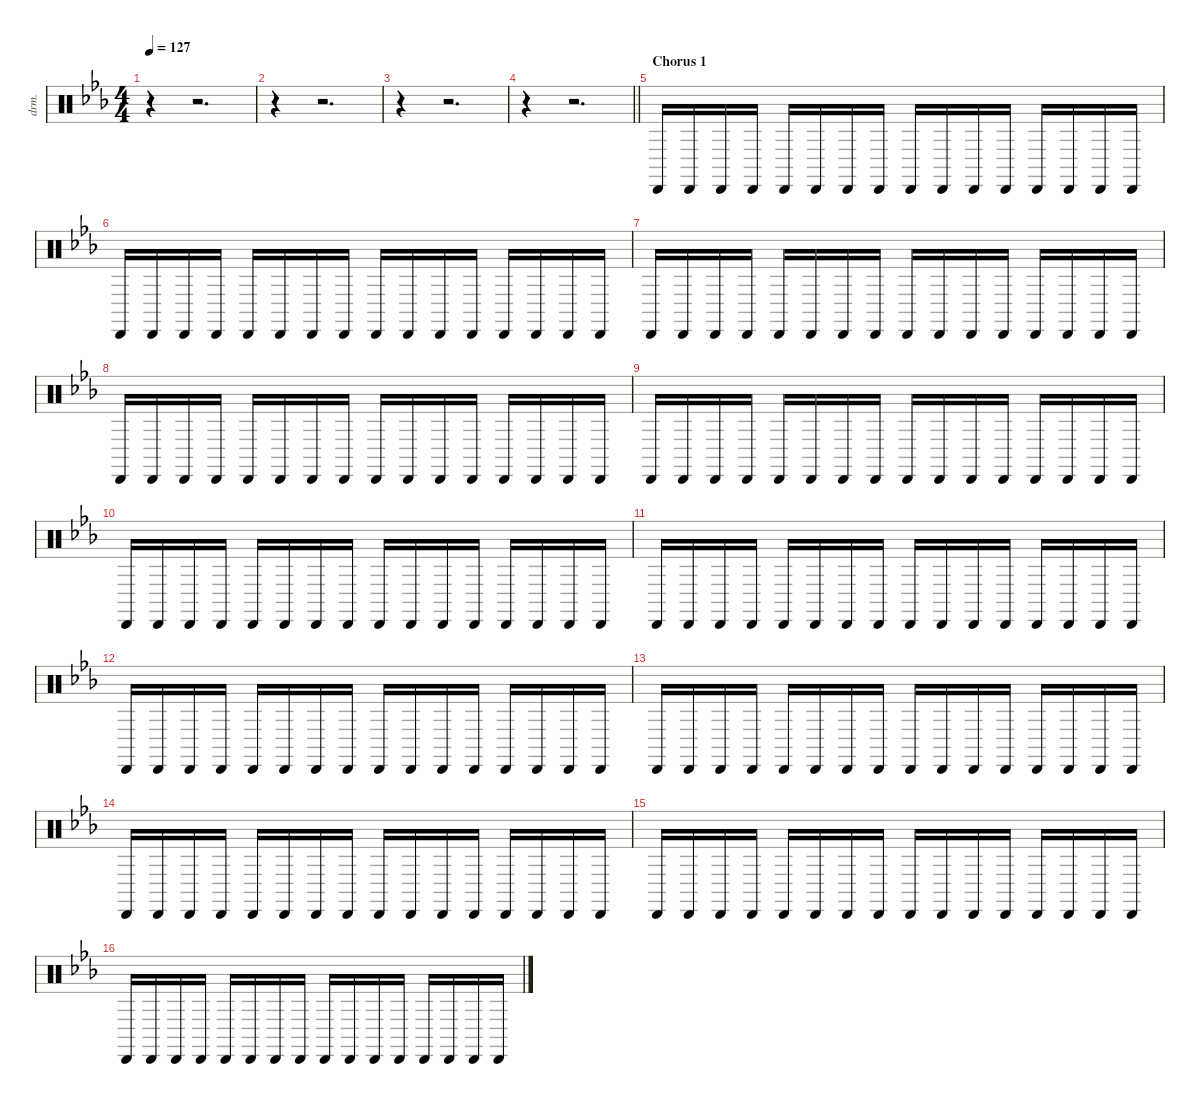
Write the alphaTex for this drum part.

\defaultSystemsLayout 4
\hideDynamics
\bracketExtendMode nobrackets
\otherSystemsTrackNameOrientation horizontal
\track ("Maracas" "drm.") {instrument percussion}
\staff {score}
\articulation defaults
\ts (4 4)
\tempo 127
\clef neutral
\ks eb
r.4{dy mf} r.2{d} |
r.4 r.2{d} |
r.4 r.2{d} |
\barLineRight lightlight
r.4 r.2{d} |
\section ("" "Chorus 1")
"Cabasa (hit)"{acc forcenatural}.16 "Cabasa (hit)"{acc forcenatural}.16{dy p} "Cabasa (hit)"{acc forcenatural}.16 "Cabasa (hit)"{acc forcenatural}.16 "Cabasa (hit)"{acc forcenatural}.16{dy mf} "Cabasa (hit)"{acc forcenatural}.16{dy p} "Cabasa (hit)"{acc forcenatural}.16 "Cabasa (hit)"{acc forcenatural}.16 "Cabasa (hit)"{acc forcenatural}.16{dy mf} "Cabasa (hit)"{acc forcenatural}.16{dy p} "Cabasa (hit)"{acc forcenatural}.16 "Cabasa (hit)"{acc forcenatural}.16 "Cabasa (hit)"{acc forcenatural}.16{dy mf} "Cabasa (hit)"{acc forcenatural}.16{dy p} "Cabasa (hit)"{acc forcenatural}.16 "Cabasa (hit)"{acc forcenatural}.16 |
"Cabasa (hit)"{acc forcenatural}.16{dy mf} "Cabasa (hit)"{acc forcenatural}.16{dy p} "Cabasa (hit)"{acc forcenatural}.16 "Cabasa (hit)"{acc forcenatural}.16 "Cabasa (hit)"{acc forcenatural}.16{dy mf} "Cabasa (hit)"{acc forcenatural}.16{dy p} "Cabasa (hit)"{acc forcenatural}.16 "Cabasa (hit)"{acc forcenatural}.16 "Cabasa (hit)"{acc forcenatural}.16{dy mf} "Cabasa (hit)"{acc forcenatural}.16{dy p} "Cabasa (hit)"{acc forcenatural}.16 "Cabasa (hit)"{acc forcenatural}.16 "Cabasa (hit)"{acc forcenatural}.16{dy mf} "Cabasa (hit)"{acc forcenatural}.16{dy p} "Cabasa (hit)"{acc forcenatural}.16 "Cabasa (hit)"{acc forcenatural}.16 |
"Cabasa (hit)"{acc forcenatural}.16{dy mf} "Cabasa (hit)"{acc forcenatural}.16{dy p} "Cabasa (hit)"{acc forcenatural}.16 "Cabasa (hit)"{acc forcenatural}.16 "Cabasa (hit)"{acc forcenatural}.16{dy mf} "Cabasa (hit)"{acc forcenatural}.16{dy p} "Cabasa (hit)"{acc forcenatural}.16 "Cabasa (hit)"{acc forcenatural}.16 "Cabasa (hit)"{acc forcenatural}.16{dy mf} "Cabasa (hit)"{acc forcenatural}.16{dy p} "Cabasa (hit)"{acc forcenatural}.16 "Cabasa (hit)"{acc forcenatural}.16 "Cabasa (hit)"{acc forcenatural}.16{dy mf} "Cabasa (hit)"{acc forcenatural}.16{dy p} "Cabasa (hit)"{acc forcenatural}.16 "Cabasa (hit)"{acc forcenatural}.16 |
"Cabasa (hit)"{acc forcenatural}.16{dy mf} "Cabasa (hit)"{acc forcenatural}.16{dy p} "Cabasa (hit)"{acc forcenatural}.16 "Cabasa (hit)"{acc forcenatural}.16 "Cabasa (hit)"{acc forcenatural}.16{dy mf} "Cabasa (hit)"{acc forcenatural}.16{dy p} "Cabasa (hit)"{acc forcenatural}.16 "Cabasa (hit)"{acc forcenatural}.16 "Cabasa (hit)"{acc forcenatural}.16{dy mf} "Cabasa (hit)"{acc forcenatural}.16{dy p} "Cabasa (hit)"{acc forcenatural}.16 "Cabasa (hit)"{acc forcenatural}.16 "Cabasa (hit)"{acc forcenatural}.16{dy mf} "Cabasa (hit)"{acc forcenatural}.16{dy p} "Cabasa (hit)"{acc forcenatural}.16 "Cabasa (hit)"{acc forcenatural}.16 |
"Cabasa (hit)"{acc forcenatural}.16{dy mf} "Cabasa (hit)"{acc forcenatural}.16{dy p} "Cabasa (hit)"{acc forcenatural}.16 "Cabasa (hit)"{acc forcenatural}.16 "Cabasa (hit)"{acc forcenatural}.16{dy mf} "Cabasa (hit)"{acc forcenatural}.16{dy p} "Cabasa (hit)"{acc forcenatural}.16 "Cabasa (hit)"{acc forcenatural}.16 "Cabasa (hit)"{acc forcenatural}.16{dy mf} "Cabasa (hit)"{acc forcenatural}.16{dy p} "Cabasa (hit)"{acc forcenatural}.16 "Cabasa (hit)"{acc forcenatural}.16 "Cabasa (hit)"{acc forcenatural}.16{dy mf} "Cabasa (hit)"{acc forcenatural}.16{dy p} "Cabasa (hit)"{acc forcenatural}.16 "Cabasa (hit)"{acc forcenatural}.16 |
"Cabasa (hit)"{acc forcenatural}.16{dy mf} "Cabasa (hit)"{acc forcenatural}.16{dy p} "Cabasa (hit)"{acc forcenatural}.16 "Cabasa (hit)"{acc forcenatural}.16 "Cabasa (hit)"{acc forcenatural}.16{dy mf} "Cabasa (hit)"{acc forcenatural}.16{dy p} "Cabasa (hit)"{acc forcenatural}.16 "Cabasa (hit)"{acc forcenatural}.16 "Cabasa (hit)"{acc forcenatural}.16{dy mf} "Cabasa (hit)"{acc forcenatural}.16{dy p} "Cabasa (hit)"{acc forcenatural}.16 "Cabasa (hit)"{acc forcenatural}.16 "Cabasa (hit)"{acc forcenatural}.16{dy mf} "Cabasa (hit)"{acc forcenatural}.16{dy p} "Cabasa (hit)"{acc forcenatural}.16 "Cabasa (hit)"{acc forcenatural}.16 |
"Cabasa (hit)"{acc forcenatural}.16{dy mf} "Cabasa (hit)"{acc forcenatural}.16{dy p} "Cabasa (hit)"{acc forcenatural}.16 "Cabasa (hit)"{acc forcenatural}.16 "Cabasa (hit)"{acc forcenatural}.16{dy mf} "Cabasa (hit)"{acc forcenatural}.16{dy p} "Cabasa (hit)"{acc forcenatural}.16 "Cabasa (hit)"{acc forcenatural}.16 "Cabasa (hit)"{acc forcenatural}.16{dy mf} "Cabasa (hit)"{acc forcenatural}.16{dy p} "Cabasa (hit)"{acc forcenatural}.16 "Cabasa (hit)"{acc forcenatural}.16 "Cabasa (hit)"{acc forcenatural}.16{dy mf} "Cabasa (hit)"{acc forcenatural}.16{dy p} "Cabasa (hit)"{acc forcenatural}.16 "Cabasa (hit)"{acc forcenatural}.16 |
"Cabasa (hit)"{acc forcenatural}.16{dy mf} "Cabasa (hit)"{acc forcenatural}.16{dy p} "Cabasa (hit)"{acc forcenatural}.16 "Cabasa (hit)"{acc forcenatural}.16 "Cabasa (hit)"{acc forcenatural}.16{dy mf} "Cabasa (hit)"{acc forcenatural}.16{dy p} "Cabasa (hit)"{acc forcenatural}.16 "Cabasa (hit)"{acc forcenatural}.16 "Cabasa (hit)"{acc forcenatural}.16{dy mf} "Cabasa (hit)"{acc forcenatural}.16{dy p} "Cabasa (hit)"{acc forcenatural}.16 "Cabasa (hit)"{acc forcenatural}.16 "Cabasa (hit)"{acc forcenatural}.16{dy mf} "Cabasa (hit)"{acc forcenatural}.16{dy p} "Cabasa (hit)"{acc forcenatural}.16 "Cabasa (hit)"{acc forcenatural}.16 |
"Cabasa (hit)"{acc forcenatural}.16{dy mf} "Cabasa (hit)"{acc forcenatural}.16{dy p} "Cabasa (hit)"{acc forcenatural}.16 "Cabasa (hit)"{acc forcenatural}.16 "Cabasa (hit)"{acc forcenatural}.16{dy mf} "Cabasa (hit)"{acc forcenatural}.16{dy p} "Cabasa (hit)"{acc forcenatural}.16 "Cabasa (hit)"{acc forcenatural}.16 "Cabasa (hit)"{acc forcenatural}.16{dy mf} "Cabasa (hit)"{acc forcenatural}.16{dy p} "Cabasa (hit)"{acc forcenatural}.16 "Cabasa (hit)"{acc forcenatural}.16 "Cabasa (hit)"{acc forcenatural}.16{dy mf} "Cabasa (hit)"{acc forcenatural}.16{dy p} "Cabasa (hit)"{acc forcenatural}.16 "Cabasa (hit)"{acc forcenatural}.16 |
"Cabasa (hit)"{acc forcenatural}.16{dy mf} "Cabasa (hit)"{acc forcenatural}.16{dy p} "Cabasa (hit)"{acc forcenatural}.16 "Cabasa (hit)"{acc forcenatural}.16 "Cabasa (hit)"{acc forcenatural}.16{dy mf} "Cabasa (hit)"{acc forcenatural}.16{dy p} "Cabasa (hit)"{acc forcenatural}.16 "Cabasa (hit)"{acc forcenatural}.16 "Cabasa (hit)"{acc forcenatural}.16{dy mf} "Cabasa (hit)"{acc forcenatural}.16{dy p} "Cabasa (hit)"{acc forcenatural}.16 "Cabasa (hit)"{acc forcenatural}.16 "Cabasa (hit)"{acc forcenatural}.16{dy mf} "Cabasa (hit)"{acc forcenatural}.16{dy p} "Cabasa (hit)"{acc forcenatural}.16 "Cabasa (hit)"{acc forcenatural}.16 |
"Cabasa (hit)"{acc forcenatural}.16{dy mf} "Cabasa (hit)"{acc forcenatural}.16{dy p} "Cabasa (hit)"{acc forcenatural}.16 "Cabasa (hit)"{acc forcenatural}.16 "Cabasa (hit)"{acc forcenatural}.16{dy mf} "Cabasa (hit)"{acc forcenatural}.16{dy p} "Cabasa (hit)"{acc forcenatural}.16 "Cabasa (hit)"{acc forcenatural}.16 "Cabasa (hit)"{acc forcenatural}.16{dy mf} "Cabasa (hit)"{acc forcenatural}.16{dy p} "Cabasa (hit)"{acc forcenatural}.16 "Cabasa (hit)"{acc forcenatural}.16 "Cabasa (hit)"{acc forcenatural}.16{dy mf} "Cabasa (hit)"{acc forcenatural}.16{dy p} "Cabasa (hit)"{acc forcenatural}.16 "Cabasa (hit)"{acc forcenatural}.16 |
"Cabasa (hit)"{acc forcenatural}.16{dy mf} "Cabasa (hit)"{acc forcenatural}.16{dy p} "Cabasa (hit)"{acc forcenatural}.16 "Cabasa (hit)"{acc forcenatural}.16 "Cabasa (hit)"{acc forcenatural}.16{dy mf} "Cabasa (hit)"{acc forcenatural}.16{dy p} "Cabasa (hit)"{acc forcenatural}.16 "Cabasa (hit)"{acc forcenatural}.16 "Cabasa (hit)"{acc forcenatural}.16{dy mf} "Cabasa (hit)"{acc forcenatural}.16{dy p} "Cabasa (hit)"{acc forcenatural}.16 "Cabasa (hit)"{acc forcenatural}.16 "Cabasa (hit)"{acc forcenatural}.16{dy mf} "Cabasa (hit)"{acc forcenatural}.16{dy p} "Cabasa (hit)"{acc forcenatural}.16 "Cabasa (hit)"{acc forcenatural}.16
